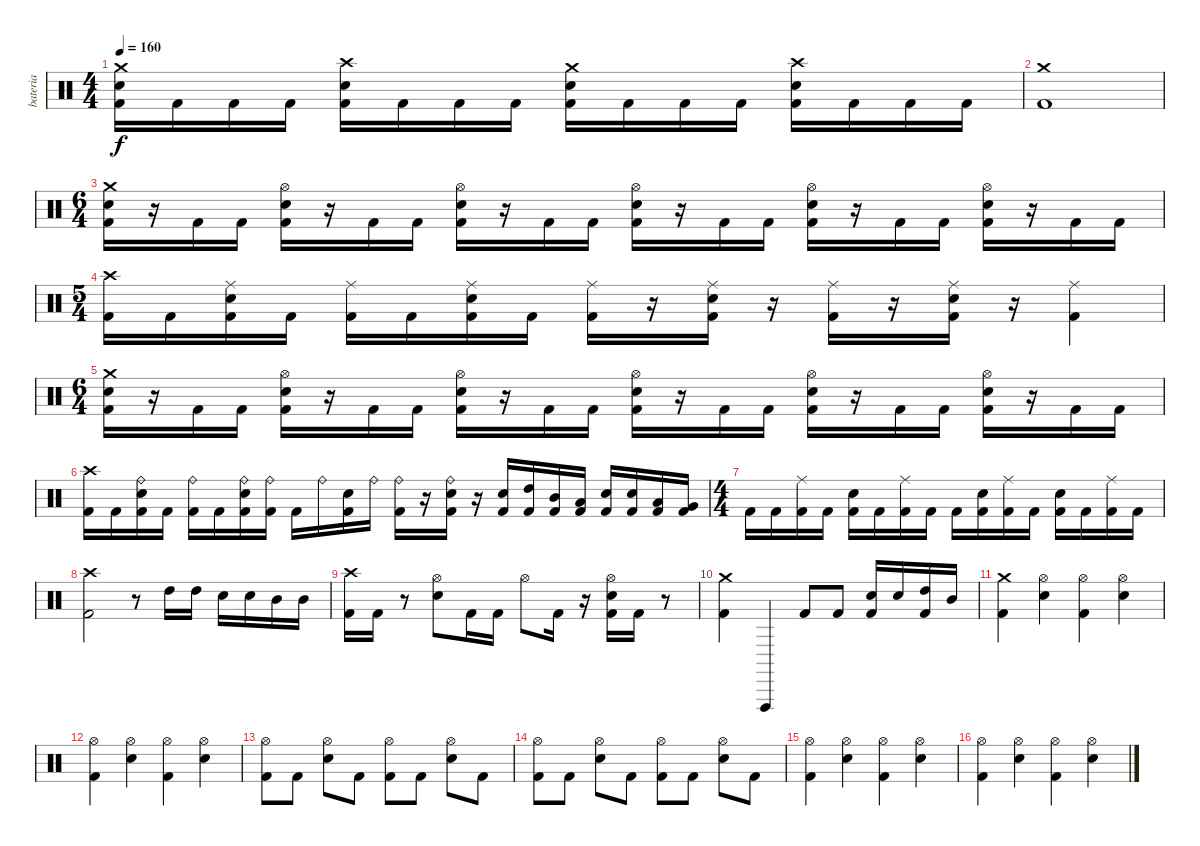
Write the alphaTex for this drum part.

\track ("bateria" "bateria") {instrument percussion}
\staff {score}
\articulation defaults
\ts (4 4)
\tempo 160
\clef neutral
\ks c
("Crash medium (hit)" "Electric Snare (hit)" "Kick (hit) 2").16{dy f} "Kick (hit) 2".16 "Kick (hit) 2".16 "Kick (hit) 2".16 ("Crash high (hit)" "Electric Snare (hit)" "Kick (hit) 2").16 "Kick (hit) 2".16 "Kick (hit) 2".16 "Kick (hit) 2".16 ("Crash medium (hit)" "Electric Snare (hit)" "Kick (hit) 2").16 "Kick (hit) 2".16 "Kick (hit) 2".16 "Kick (hit) 2".16 ("Crash high (hit)" "Electric Snare (hit)" "Kick (hit) 2").16 "Kick (hit) 2".16 "Kick (hit) 2".16 "Kick (hit) 2".16 |
("Crash medium (hit)" "Kick (hit) 2").1 |
\ts (6 4)
("Crash medium (hit)" "Electric Snare (hit)" "Kick (hit) 2").16 r.16 "Kick (hit) 2".16 "Kick (hit) 2".16 ("Hi-Hat (open)" "Electric Snare (hit)" "Kick (hit) 2").16 r.16 "Kick (hit) 2".16 "Kick (hit) 2".16 ("Hi-Hat (open)" "Electric Snare (hit)" "Kick (hit) 2").16 r.16 "Kick (hit) 2".16 "Kick (hit) 2".16 ("Hi-Hat (open)" "Electric Snare (hit)" "Kick (hit) 2").16 r.16 "Kick (hit) 2".16 "Kick (hit) 2".16 ("Hi-Hat (open)" "Electric Snare (hit)" "Kick (hit) 2").16 r.16 "Kick (hit) 2".16 "Kick (hit) 2".16 ("Hi-Hat (open)" "Electric Snare (hit)" "Kick (hit) 2").16 r.16 "Kick (hit) 2".16 "Kick (hit) 2".16 |
\ts (5 4)
("Crash high (hit)" "Kick (hit) 2").16 "Kick (hit) 2".16 ("Ride (middle)" "Electric Snare (hit)" "Kick (hit) 2").16 "Kick (hit) 2".16 ("Ride (middle)" "Kick (hit) 2").16 "Kick (hit) 2".16 ("Ride (middle)" "Electric Snare (hit)" "Kick (hit) 2").16 "Kick (hit) 2".16 ("Ride (middle)" "Kick (hit) 2").16 r.16 ("Ride (middle)" "Electric Snare (hit)" "Kick (hit) 2").16 r.16 ("Ride (middle)" "Kick (hit) 2").16 r.16 ("Ride (middle)" "Electric Snare (hit)" "Kick (hit) 2").16 r.16 ("Ride (middle)" "Kick (hit) 2").4 |
\ts (6 4)
("Crash medium (hit)" "Electric Snare (hit)" "Kick (hit) 2").16 r.16 "Kick (hit) 2".16 "Kick (hit) 2".16 ("Hi-Hat (open)" "Electric Snare (hit)" "Kick (hit) 2").16 r.16 "Kick (hit) 2".16 "Kick (hit) 2".16 ("Hi-Hat (open)" "Electric Snare (hit)" "Kick (hit) 2").16 r.16 "Kick (hit) 2".16 "Kick (hit) 2".16 ("Hi-Hat (open)" "Electric Snare (hit)" "Kick (hit) 2").16 r.16 "Kick (hit) 2".16 "Kick (hit) 2".16 ("Hi-Hat (open)" "Electric Snare (hit)" "Kick (hit) 2").16 r.16 "Kick (hit) 2".16 "Kick (hit) 2".16 ("Hi-Hat (open)" "Electric Snare (hit)" "Kick (hit) 2").16 r.16 "Kick (hit) 2".16 "Kick (hit) 2".16 |
("Crash high (hit)" "Kick (hit) 2").16 "Kick (hit) 2".16 ("Ride (bell)" "Electric Snare (hit)" "Kick (hit) 2").16 "Kick (hit) 2".16 ("Ride (bell)" "Kick (hit) 2").16 "Kick (hit) 2".16 ("Ride (bell)" "Electric Snare (hit)" "Kick (hit) 2").16 ("Ride (bell)" "Kick (hit) 2").16 "Kick (hit) 2".16 "Ride (bell)".16 ("Electric Snare (hit)" "Kick (hit) 2").16 "Ride (bell)".16 ("Ride (bell)" "Kick (hit) 2").16 r.16 ("Ride (bell)" "Electric Snare (hit)" "Kick (hit) 2").16 r.16 ("Electric Snare (hit)" "Kick (hit) 2").16 ("High Tom (hit)" "Kick (hit) 2").16 ("Mid Tom (hit)" "Kick (hit) 2").16 ("Low Tom (hit)" "Kick (hit) 2").16 ("Electric Snare (hit)" "Kick (hit) 2").16 ("Electric Snare (hit)" "Kick (hit) 2").16 ("Low Tom (hit)" "Kick (hit) 2").16 ("Very Low Tom (hit)" "Kick (hit) 2").16 |
\ts (4 4)
"Kick (hit) 2".16 "Kick (hit) 2".16 ("Ride (middle)" "Kick (hit) 2").16 "Kick (hit) 2".16 ("Electric Snare (hit)" "Kick (hit) 2").16 "Kick (hit) 2".16 ("Ride (middle)" "Kick (hit) 2").16 "Kick (hit) 2".16 "Kick (hit) 2".16 ("Electric Snare (hit)" "Kick (hit) 2").16 ("Ride (middle)" "Kick (hit) 2").16 "Kick (hit) 2".16 ("Electric Snare (hit)" "Kick (hit) 2").16 "Kick (hit) 2".16 ("Ride (middle)" "Kick (hit) 2").16 "Kick (hit) 2".16 |
("Crash high (hit)" "Kick (hit) 2").2 r.8 "High Tom (hit)".16 "High Tom (hit)".16 "Electric Snare (hit)".16 "Electric Snare (hit)".16 "Mid Tom (hit)".16 "Mid Tom (hit)".16 |
("Crash high (hit)" "Kick (hit) 2").16 "Kick (hit) 2".16 r.8 ("Hi-Hat (open)" "Electric Snare (hit)").8 "Kick (hit) 2".16 "Kick (hit) 2".16 "Hi-Hat (open)".8 "Kick (hit) 2".16 r.16 ("Hi-Hat (open)" "Electric Snare (hit)" "Kick (hit) 2").16 "Kick (hit) 2".16 r.8 |
("Crash medium (hit)" "Kick (hit) 2").4 "Vibraslap (hit)".4 "Kick (hit) 2".8 "Kick (hit) 2".8 ("Electric Snare (hit)" "Kick (hit) 2").16 "Electric Snare (hit)".16 ("High Tom (hit)" "Kick (hit) 2").16 "Mid Tom (hit)".16 |
("Crash medium (hit)" "Kick (hit) 2").4 ("Hi-Hat (open)" "Electric Snare (hit)").4 ("Hi-Hat (open)" "Kick (hit) 2").4 ("Hi-Hat (open)" "Electric Snare (hit)").4 |
("Hi-Hat (open)" "Kick (hit) 2").4 ("Hi-Hat (open)" "Electric Snare (hit)").4 ("Hi-Hat (open)" "Kick (hit) 2").4 ("Hi-Hat (open)" "Electric Snare (hit)").4 |
("Hi-Hat (open)" "Kick (hit) 2").8 "Kick (hit) 2".8 ("Hi-Hat (open)" "Electric Snare (hit)").8 "Kick (hit) 2".8 ("Hi-Hat (open)" "Kick (hit) 2").8 "Kick (hit) 2".8 ("Hi-Hat (open)" "Electric Snare (hit)").8 "Kick (hit) 2".8 |
("Hi-Hat (open)" "Kick (hit) 2").8 "Kick (hit) 2".8 ("Hi-Hat (open)" "Electric Snare (hit)").8 "Kick (hit) 2".8 ("Hi-Hat (open)" "Kick (hit) 2").8 "Kick (hit) 2".8 ("Hi-Hat (open)" "Electric Snare (hit)").8 "Kick (hit) 2".8 |
("Hi-Hat (open)" "Kick (hit) 2").4 ("Hi-Hat (open)" "Electric Snare (hit)").4 ("Hi-Hat (open)" "Kick (hit) 2").4 ("Hi-Hat (open)" "Electric Snare (hit)").4 |
("Hi-Hat (open)" "Kick (hit) 2").4 ("Hi-Hat (open)" "Electric Snare (hit)").4 ("Hi-Hat (open)" "Kick (hit) 2").4 ("Hi-Hat (open)" "Electric Snare (hit)").4
